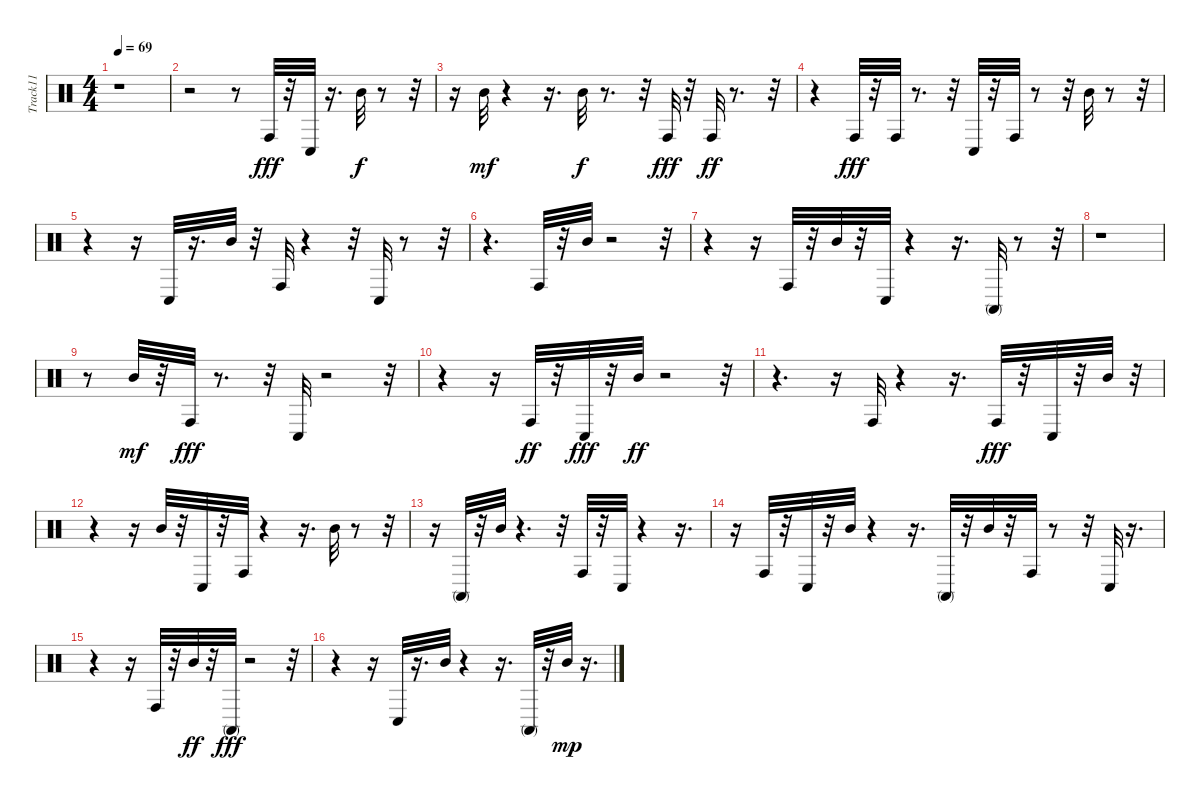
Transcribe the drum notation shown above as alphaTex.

\track ("Track11" "Track11") {instrument percussion}
\staff {score}
\articulation defaults
\ts (4 4)
\tempo 69
\clef neutral
\ks c
r.1{dy fff} |
r.2 r.8 "Conga high (hit)".32 r.32 "Conga low (hit)".32 r.16{d} "Mid Tom (hit)".32{dy f} r.8 r.32 |
r.16 "Mid Tom (hit)".32{dy mf} r.4 r.16{d} "Mid Tom (hit)".32{dy f} r.8{d} r.32 "Conga high (hit)".32{dy fff} r.32 "Conga high (hit)".32{dy ff} r.8{d} r.32 |
r.4 "Conga high (hit)".32{dy fff} r.32 "Conga high (hit)".32 r.8{d} r.32 "Conga low (hit)".32 r.32 "Conga high (hit)".32 r.8 r.32 "Mid Tom (hit)".32 r.8 r.32 |
r.4 r.16 "Conga low (hit)".32 r.16{d} "Mid Tom (hit)".32 r.32 "Conga high (hit)".32 r.4 r.32 "Conga low (hit)".32 r.8 r.32 |
r.4{d} "Conga high (hit)".32 r.32 "Mid Tom (hit)".32 r.2 r.32 |
r.4 r.16 "Conga high (hit)".32 r.32 "Mid Tom (hit)".32 r.32 "Conga low (hit)".32 r.4 r.16{d} "Conga high (mute)".32 r.8 r.32 |
r.1 |
r.8 "Mid Tom (hit)".32{dy mf} r.32 "Conga high (hit)".32{dy fff} r.8{d} r.32 "Conga low (hit)".32 r.2 r.32 |
r.4 r.16 "Conga high (hit)".32{dy ff} r.32 "Conga low (hit)".32{dy fff} r.32 "Mid Tom (hit)".32{dy ff} r.2 r.32 |
r.4{d} r.16 "Conga high (hit)".32 r.4 r.16{d} "Conga high (hit)".32{dy fff} r.32 "Conga low (hit)".32 r.32 "Mid Tom (hit)".32 r.32 |
r.4 r.16 "Mid Tom (hit)".32 r.32 "Conga low (hit)".32 r.32 "Conga high (hit)".32 r.4 r.16{d} "Mid Tom (hit)".32 r.8 r.32 |
r.16 "Conga high (mute)".32 r.32 "Mid Tom (hit)".32 r.4{d} r.32 "Conga high (hit)".32 r.32 "Conga low (hit)".32 r.4 r.16{d} |
r.16 "Conga high (hit)".32 r.32 "Conga low (hit)".32 r.32 "Mid Tom (hit)".32 r.4 r.16{d} "Conga high (mute)".32 r.32 "Mid Tom (hit)".32 r.32 "Conga high (hit)".32 r.8 r.32 "Conga low (hit)".32 r.16{d} |
r.4 r.16 "Conga high (hit)".32 r.32 "Mid Tom (hit)".32{dy ff} r.32 "Conga high (mute)".32{dy fff} r.2 r.32 |
r.4 r.16 "Conga low (hit)".32 r.16{d} "Mid Tom (hit)".32 r.4 r.16{d} "Conga high (mute)".32 r.32 "Mid Tom (hit)".32{dy mp} r.16{d}
